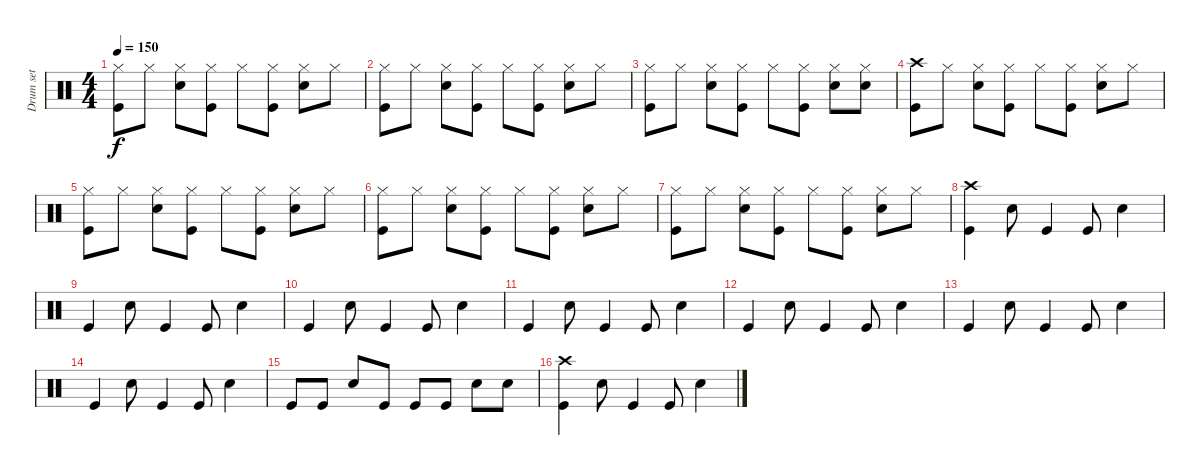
\track ("Drum set" "Drum set") {instrument percussion}
\staff {score}
\articulation defaults
\ts (4 4)
\tempo 150
\clef neutral
\ks c
("Hi-Hat (closed)" "Kick (hit)").8{dy f} "Hi-Hat (closed)".8 ("Hi-Hat (closed)" "Snare (hit) 2").8 ("Hi-Hat (closed)" "Kick (hit)").8 "Hi-Hat (closed)".8 ("Hi-Hat (closed)" "Kick (hit)").8 ("Hi-Hat (closed)" "Snare (hit) 2").8 "Hi-Hat (closed)".8 |
("Hi-Hat (closed)" "Kick (hit)").8 "Hi-Hat (closed)".8 ("Hi-Hat (closed)" "Snare (hit) 2").8 ("Hi-Hat (closed)" "Kick (hit)").8 "Hi-Hat (closed)".8 ("Hi-Hat (closed)" "Kick (hit)").8 ("Hi-Hat (closed)" "Snare (hit) 2").8 "Hi-Hat (closed)".8 |
("Hi-Hat (closed)" "Kick (hit)").8 "Hi-Hat (closed)".8 ("Hi-Hat (closed)" "Snare (hit) 2").8 ("Hi-Hat (closed)" "Kick (hit)").8 "Hi-Hat (closed)".8 ("Hi-Hat (closed)" "Kick (hit)").8 ("Hi-Hat (closed)" "Snare (hit) 2").8 ("Hi-Hat (closed)" "Snare (hit) 2").8 |
("Crash high (hit)" "Kick (hit)").8 "Hi-Hat (closed)".8 ("Hi-Hat (closed)" "Snare (hit) 2").8 ("Hi-Hat (closed)" "Kick (hit)").8 "Hi-Hat (closed)".8 ("Hi-Hat (closed)" "Kick (hit)").8 ("Hi-Hat (closed)" "Snare (hit) 2").8 "Hi-Hat (closed)".8 |
("Hi-Hat (closed)" "Kick (hit)").8 "Hi-Hat (closed)".8 ("Hi-Hat (closed)" "Snare (hit) 2").8 ("Hi-Hat (closed)" "Kick (hit)").8 "Hi-Hat (closed)".8 ("Hi-Hat (closed)" "Kick (hit)").8 ("Hi-Hat (closed)" "Snare (hit) 2").8 "Hi-Hat (closed)".8 |
("Hi-Hat (closed)" "Kick (hit)").8 "Hi-Hat (closed)".8 ("Hi-Hat (closed)" "Snare (hit) 2").8 ("Hi-Hat (closed)" "Kick (hit)").8 "Hi-Hat (closed)".8 ("Hi-Hat (closed)" "Kick (hit)").8 ("Hi-Hat (closed)" "Snare (hit) 2").8 "Hi-Hat (closed)".8 |
("Hi-Hat (closed)" "Kick (hit)").8 "Hi-Hat (closed)".8 ("Hi-Hat (closed)" "Snare (hit) 2").8 ("Hi-Hat (closed)" "Kick (hit)").8 "Hi-Hat (closed)".8 ("Hi-Hat (closed)" "Kick (hit)").8 ("Hi-Hat (closed)" "Snare (hit) 2").8 "Hi-Hat (closed)".8 |
("Crash high (hit)" "Kick (hit)").4 "Snare (hit) 2".8 "Kick (hit)".4 "Kick (hit)".8 "Snare (hit) 2".4 |
"Kick (hit)".4 "Snare (hit) 2".8 "Kick (hit)".4 "Kick (hit)".8 "Snare (hit) 2".4 |
"Kick (hit)".4 "Snare (hit) 2".8 "Kick (hit)".4 "Kick (hit)".8 "Snare (hit) 2".4 |
"Kick (hit)".4 "Snare (hit) 2".8 "Kick (hit)".4 "Kick (hit)".8 "Snare (hit) 2".4 |
"Kick (hit)".4 "Snare (hit) 2".8 "Kick (hit)".4 "Kick (hit)".8 "Snare (hit) 2".4 |
"Kick (hit)".4 "Snare (hit) 2".8 "Kick (hit)".4 "Kick (hit)".8 "Snare (hit) 2".4 |
"Kick (hit)".4 "Snare (hit) 2".8 "Kick (hit)".4 "Kick (hit)".8 "Snare (hit) 2".4 |
"Kick (hit)".8 "Kick (hit)".8 "Snare (hit) 2".8 "Kick (hit)".8 "Kick (hit)".8 "Kick (hit)".8 "Snare (hit) 2".8 "Snare (hit) 2".8 |
("Crash high (hit)" "Kick (hit)").4 "Snare (hit) 2".8 "Kick (hit)".4 "Kick (hit)".8 "Snare (hit) 2".4
